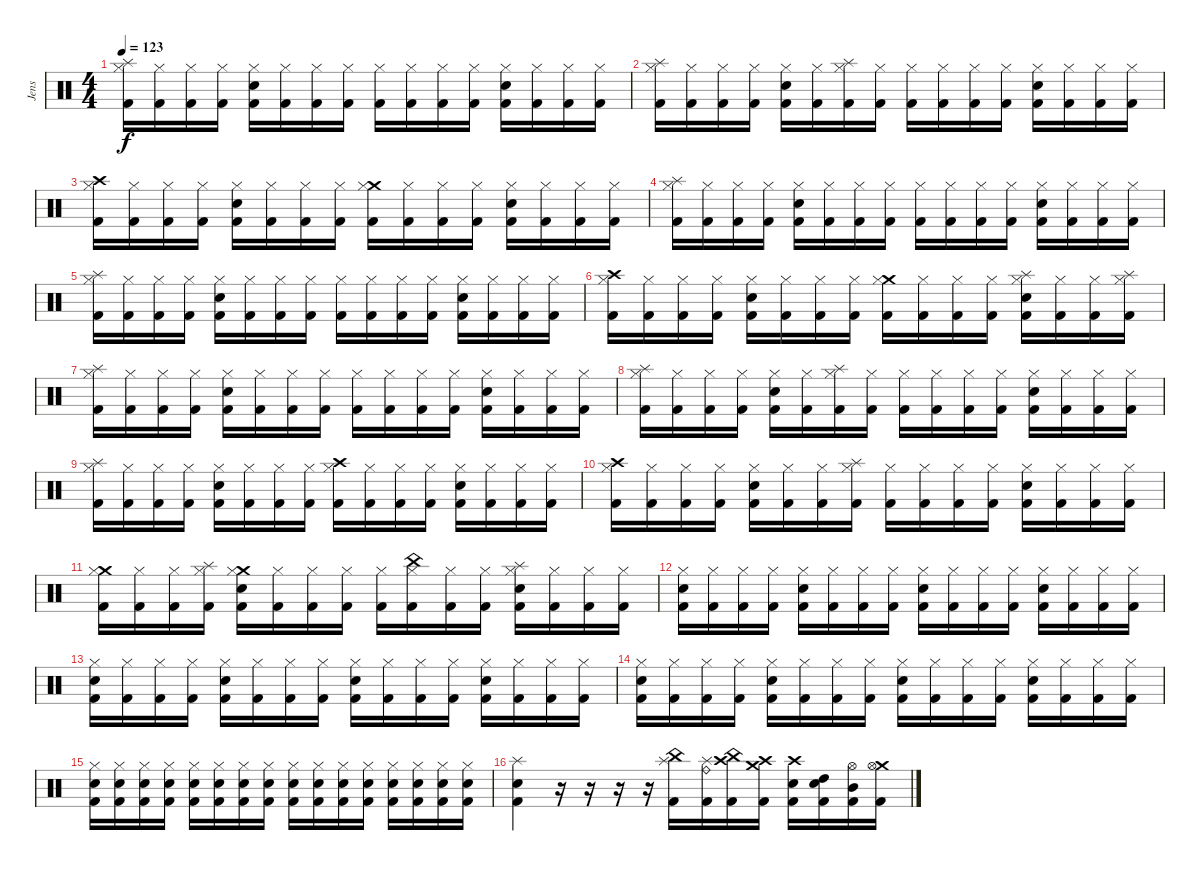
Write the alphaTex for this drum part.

\track ("Jens" "Jens") {instrument percussion}
\staff {score}
\articulation defaults
\ts (4 4)
\tempo 123
\clef neutral
\ks c
("Splash (hit)" "Hi-Hat (closed)" "Kick (hit) 2").16{dy f} ("Hi-Hat (closed)" "Kick (hit) 2").16 ("Hi-Hat (closed)" "Kick (hit) 2").16 ("Hi-Hat (closed)" "Kick (hit) 2").16 ("Hi-Hat (closed)" "Snare (hit) 2" "Kick (hit) 2").16 ("Hi-Hat (closed)" "Kick (hit) 2").16 ("Hi-Hat (closed)" "Kick (hit) 2").16 ("Hi-Hat (closed)" "Kick (hit) 2").16 ("Hi-Hat (closed)" "Kick (hit) 2").16 ("Hi-Hat (closed)" "Kick (hit) 2").16 ("Hi-Hat (closed)" "Kick (hit) 2").16 ("Hi-Hat (closed)" "Kick (hit) 2").16 ("Hi-Hat (closed)" "Snare (hit) 2" "Kick (hit) 2").16 ("Hi-Hat (closed)" "Kick (hit) 2").16 ("Hi-Hat (closed)" "Kick (hit) 2").16 ("Hi-Hat (closed)" "Kick (hit) 2").16 |
("Splash (hit)" "Hi-Hat (closed)" "Kick (hit) 2").16 ("Hi-Hat (closed)" "Kick (hit) 2").16 ("Hi-Hat (closed)" "Kick (hit) 2").16 ("Hi-Hat (closed)" "Kick (hit) 2").16 ("Hi-Hat (closed)" "Snare (hit) 2" "Kick (hit) 2").16 ("Hi-Hat (closed)" "Kick (hit) 2").16 ("Splash (hit)" "Hi-Hat (closed)" "Kick (hit) 2").16 ("Hi-Hat (closed)" "Kick (hit) 2").16 ("Hi-Hat (closed)" "Kick (hit) 2").16 ("Hi-Hat (closed)" "Kick (hit) 2").16 ("Hi-Hat (closed)" "Kick (hit) 2").16 ("Hi-Hat (closed)" "Kick (hit) 2").16 ("Hi-Hat (closed)" "Snare (hit) 2" "Kick (hit) 2").16 ("Hi-Hat (closed)" "Kick (hit) 2").16 ("Hi-Hat (closed)" "Kick (hit) 2").16 ("Hi-Hat (closed)" "Kick (hit) 2").16 |
("Crash high (hit)" "Hi-Hat (closed)" "Kick (hit) 2").16 ("Hi-Hat (closed)" "Kick (hit) 2").16 ("Hi-Hat (closed)" "Kick (hit) 2").16 ("Hi-Hat (closed)" "Kick (hit) 2").16 ("Hi-Hat (closed)" "Snare (hit) 2" "Kick (hit) 2").16 ("Hi-Hat (closed)" "Kick (hit) 2").16 ("Hi-Hat (closed)" "Kick (hit) 2").16 ("Hi-Hat (closed)" "Kick (hit) 2").16 ("Crash medium (hit)" "Hi-Hat (closed)" "Kick (hit) 2").16 ("Hi-Hat (closed)" "Kick (hit) 2").16 ("Hi-Hat (closed)" "Kick (hit) 2").16 ("Hi-Hat (closed)" "Kick (hit) 2").16 ("Hi-Hat (closed)" "Snare (hit) 2" "Kick (hit) 2").16 ("Hi-Hat (closed)" "Kick (hit) 2").16 ("Hi-Hat (closed)" "Kick (hit) 2").16 ("Hi-Hat (closed)" "Kick (hit) 2").16 |
("Splash (hit)" "Hi-Hat (closed)" "Kick (hit) 2").16 ("Hi-Hat (closed)" "Kick (hit) 2").16 ("Hi-Hat (closed)" "Kick (hit) 2").16 ("Hi-Hat (closed)" "Kick (hit) 2").16 ("Hi-Hat (closed)" "Snare (hit) 2" "Kick (hit) 2").16 ("Hi-Hat (closed)" "Kick (hit) 2").16 ("Hi-Hat (closed)" "Kick (hit) 2").16 ("Hi-Hat (closed)" "Kick (hit) 2").16 ("Hi-Hat (closed)" "Kick (hit) 2").16 ("Hi-Hat (closed)" "Kick (hit) 2").16 ("Hi-Hat (closed)" "Kick (hit) 2").16 ("Hi-Hat (closed)" "Kick (hit) 2").16 ("Hi-Hat (closed)" "Snare (hit) 2" "Kick (hit) 2").16 ("Hi-Hat (closed)" "Kick (hit) 2").16 ("Hi-Hat (closed)" "Kick (hit) 2").16 ("Hi-Hat (closed)" "Kick (hit) 2").16 |
("Splash (hit)" "Hi-Hat (closed)" "Kick (hit) 2").16 ("Hi-Hat (closed)" "Kick (hit) 2").16 ("Hi-Hat (closed)" "Kick (hit) 2").16 ("Hi-Hat (closed)" "Kick (hit) 2").16 ("Hi-Hat (closed)" "Snare (hit) 2" "Kick (hit) 2").16 ("Hi-Hat (closed)" "Kick (hit) 2").16 ("Hi-Hat (closed)" "Kick (hit) 2").16 ("Hi-Hat (closed)" "Kick (hit) 2").16 ("Hi-Hat (closed)" "Kick (hit) 2").16 ("Hi-Hat (closed)" "Kick (hit) 2").16 ("Hi-Hat (closed)" "Kick (hit) 2").16 ("Hi-Hat (closed)" "Kick (hit) 2").16 ("Hi-Hat (closed)" "Snare (hit) 2" "Kick (hit) 2").16 ("Hi-Hat (closed)" "Kick (hit) 2").16 ("Hi-Hat (closed)" "Kick (hit) 2").16 ("Hi-Hat (closed)" "Kick (hit) 2").16 |
("Crash high (hit)" "Hi-Hat (closed)" "Kick (hit) 2").16 ("Hi-Hat (closed)" "Kick (hit) 2").16 ("Hi-Hat (closed)" "Kick (hit) 2").16 ("Hi-Hat (closed)" "Kick (hit) 2").16 ("Hi-Hat (closed)" "Snare (hit) 2" "Kick (hit) 2").16 ("Hi-Hat (closed)" "Kick (hit) 2").16 ("Hi-Hat (closed)" "Kick (hit) 2").16 ("Hi-Hat (closed)" "Kick (hit) 2").16 ("Crash medium (hit)" "Hi-Hat (closed)" "Kick (hit) 2").16 ("Hi-Hat (closed)" "Kick (hit) 2").16 ("Hi-Hat (closed)" "Kick (hit) 2").16 ("Hi-Hat (closed)" "Kick (hit) 2").16 ("Splash (hit)" "Hi-Hat (closed)" "Snare (hit) 2" "Kick (hit) 2").16 ("Hi-Hat (closed)" "Kick (hit) 2").16 ("Hi-Hat (closed)" "Kick (hit) 2").16 ("Splash (hit)" "Hi-Hat (closed)" "Kick (hit) 2").16 |
("Splash (hit)" "Hi-Hat (closed)" "Kick (hit) 2").16 ("Hi-Hat (closed)" "Kick (hit) 2").16 ("Hi-Hat (closed)" "Kick (hit) 2").16 ("Hi-Hat (closed)" "Kick (hit) 2").16 ("Hi-Hat (closed)" "Snare (hit) 2" "Kick (hit) 2").16 ("Hi-Hat (closed)" "Kick (hit) 2").16 ("Hi-Hat (closed)" "Kick (hit) 2").16 ("Hi-Hat (closed)" "Kick (hit) 2").16 ("Hi-Hat (closed)" "Kick (hit) 2").16 ("Hi-Hat (closed)" "Kick (hit) 2").16 ("Hi-Hat (closed)" "Kick (hit) 2").16 ("Hi-Hat (closed)" "Kick (hit) 2").16 ("Hi-Hat (closed)" "Snare (hit) 2" "Kick (hit) 2").16 ("Hi-Hat (closed)" "Kick (hit) 2").16 ("Hi-Hat (closed)" "Kick (hit) 2").16 ("Hi-Hat (closed)" "Kick (hit) 2").16 |
("Splash (hit)" "Hi-Hat (closed)" "Kick (hit) 2").16 ("Hi-Hat (closed)" "Kick (hit) 2").16 ("Hi-Hat (closed)" "Kick (hit) 2").16 ("Hi-Hat (closed)" "Kick (hit) 2").16 ("Hi-Hat (closed)" "Snare (hit) 2" "Kick (hit) 2").16 ("Hi-Hat (closed)" "Kick (hit) 2").16 ("Splash (hit)" "Hi-Hat (closed)" "Kick (hit) 2").16 ("Hi-Hat (closed)" "Kick (hit) 2").16 ("Hi-Hat (closed)" "Kick (hit) 2").16 ("Hi-Hat (closed)" "Kick (hit) 2").16 ("Hi-Hat (closed)" "Kick (hit) 2").16 ("Hi-Hat (closed)" "Kick (hit) 2").16 ("Hi-Hat (closed)" "Snare (hit) 2" "Kick (hit) 2").16 ("Hi-Hat (closed)" "Kick (hit) 2").16 ("Hi-Hat (closed)" "Kick (hit) 2").16 ("Hi-Hat (closed)" "Kick (hit) 2").16 |
("Splash (hit)" "Hi-Hat (closed)" "Kick (hit) 2").16 ("Hi-Hat (closed)" "Kick (hit) 2").16 ("Hi-Hat (closed)" "Kick (hit) 2").16 ("Hi-Hat (closed)" "Kick (hit) 2").16 ("Hi-Hat (closed)" "Snare (hit) 2" "Kick (hit) 2").16 ("Hi-Hat (closed)" "Kick (hit) 2").16 ("Hi-Hat (closed)" "Kick (hit) 2").16 ("Hi-Hat (closed)" "Kick (hit) 2").16 ("Crash high (hit)" "Hi-Hat (closed)" "Kick (hit) 2").16 ("Hi-Hat (closed)" "Kick (hit) 2").16 ("Hi-Hat (closed)" "Kick (hit) 2").16 ("Hi-Hat (closed)" "Kick (hit) 2").16 ("Hi-Hat (closed)" "Snare (hit) 2" "Kick (hit) 2").16 ("Hi-Hat (closed)" "Kick (hit) 2").16 ("Hi-Hat (closed)" "Kick (hit) 2").16 ("Hi-Hat (closed)" "Kick (hit) 2").16 |
("Crash high (hit)" "Hi-Hat (closed)" "Kick (hit) 2").16 ("Hi-Hat (closed)" "Kick (hit) 2").16 ("Hi-Hat (closed)" "Kick (hit) 2").16 ("Hi-Hat (closed)" "Kick (hit) 2").16 ("Hi-Hat (closed)" "Snare (hit) 2" "Kick (hit) 2").16 ("Hi-Hat (closed)" "Kick (hit) 2").16 ("Hi-Hat (closed)" "Kick (hit) 2").16 ("Splash (hit)" "Hi-Hat (closed)" "Kick (hit) 2").16 ("Hi-Hat (closed)" "Kick (hit) 2").16 ("Hi-Hat (closed)" "Kick (hit) 2").16 ("Hi-Hat (closed)" "Kick (hit) 2").16 ("Hi-Hat (closed)" "Kick (hit) 2").16 ("Hi-Hat (closed)" "Snare (hit) 2" "Kick (hit) 2").16 ("Hi-Hat (closed)" "Kick (hit) 2").16 ("Hi-Hat (closed)" "Kick (hit) 2").16 ("Hi-Hat (closed)" "Kick (hit) 2").16 |
("Crash medium (hit)" "Hi-Hat (closed)" "Kick (hit) 2").16 ("Hi-Hat (closed)" "Kick (hit) 2").16 ("Hi-Hat (closed)" "Kick (hit) 2").16 ("Splash (hit)" "Hi-Hat (closed)" "Kick (hit) 2").16 ("Crash medium (hit)" "Hi-Hat (closed)" "Snare (hit) 2" "Kick (hit) 2").16 ("Hi-Hat (closed)" "Kick (hit) 2").16 ("Hi-Hat (closed)" "Kick (hit) 2").16 ("Hi-Hat (closed)" "Kick (hit) 2").16 ("Hi-Hat (closed)" "Kick (hit) 2").16 ("China (hit)" "Hi-Hat (closed)" "Kick (hit) 2").16 ("Hi-Hat (closed)" "Kick (hit) 2").16 ("Hi-Hat (closed)" "Kick (hit) 2").16 ("Splash (hit)" "Hi-Hat (closed)" "Snare (hit) 2" "Kick (hit) 2").16 ("Hi-Hat (closed)" "Kick (hit) 2").16 ("Hi-Hat (closed)" "Kick (hit) 2").16 ("Hi-Hat (closed)" "Kick (hit) 2").16 |
("Hi-Hat (closed)" "Snare (hit) 2" "Kick (hit) 2").16 ("Hi-Hat (closed)" "Kick (hit) 2").16 ("Hi-Hat (closed)" "Kick (hit) 2").16 ("Hi-Hat (closed)" "Kick (hit) 2").16 ("Hi-Hat (closed)" "Snare (hit) 2" "Kick (hit) 2").16 ("Hi-Hat (closed)" "Kick (hit) 2").16 ("Hi-Hat (closed)" "Kick (hit) 2").16 ("Hi-Hat (closed)" "Kick (hit) 2").16 ("Hi-Hat (closed)" "Snare (hit) 2" "Kick (hit) 2").16 ("Hi-Hat (closed)" "Kick (hit) 2").16 ("Hi-Hat (closed)" "Kick (hit) 2").16 ("Hi-Hat (closed)" "Kick (hit) 2").16 ("Hi-Hat (closed)" "Snare (hit) 2" "Kick (hit) 2").16 ("Hi-Hat (closed)" "Kick (hit) 2").16 ("Hi-Hat (closed)" "Kick (hit) 2").16 ("Hi-Hat (closed)" "Kick (hit) 2").16 |
("Hi-Hat (closed)" "Snare (hit) 2" "Kick (hit) 2").16 ("Hi-Hat (closed)" "Kick (hit) 2").16 ("Hi-Hat (closed)" "Kick (hit) 2").16 ("Hi-Hat (closed)" "Kick (hit) 2").16 ("Hi-Hat (closed)" "Snare (hit) 2" "Kick (hit) 2").16 ("Hi-Hat (closed)" "Kick (hit) 2").16 ("Hi-Hat (closed)" "Kick (hit) 2").16 ("Hi-Hat (closed)" "Kick (hit) 2").16 ("Hi-Hat (closed)" "Snare (hit) 2" "Kick (hit) 2").16 ("Hi-Hat (closed)" "Kick (hit) 2").16 ("Hi-Hat (closed)" "Kick (hit) 2").16 ("Hi-Hat (closed)" "Kick (hit) 2").16 ("Hi-Hat (closed)" "Snare (hit) 2" "Kick (hit) 2").16 ("Hi-Hat (closed)" "Kick (hit) 2").16 ("Hi-Hat (closed)" "Kick (hit) 2").16 ("Hi-Hat (closed)" "Kick (hit) 2").16 |
("Hi-Hat (closed)" "Snare (hit) 2" "Kick (hit) 2").16 ("Hi-Hat (closed)" "Kick (hit) 2").16 ("Hi-Hat (closed)" "Kick (hit) 2").16 ("Hi-Hat (closed)" "Kick (hit) 2").16 ("Hi-Hat (closed)" "Snare (hit) 2" "Kick (hit) 2").16 ("Hi-Hat (closed)" "Kick (hit) 2").16 ("Hi-Hat (closed)" "Kick (hit) 2").16 ("Hi-Hat (closed)" "Kick (hit) 2").16 ("Hi-Hat (closed)" "Snare (hit) 2" "Kick (hit) 2").16 ("Hi-Hat (closed)" "Kick (hit) 2").16 ("Hi-Hat (closed)" "Kick (hit) 2").16 ("Hi-Hat (closed)" "Kick (hit) 2").16 ("Hi-Hat (closed)" "Snare (hit) 2" "Kick (hit) 2").16 ("Hi-Hat (closed)" "Kick (hit) 2").16 ("Hi-Hat (closed)" "Kick (hit) 2").16 ("Hi-Hat (closed)" "Kick (hit) 2").16 |
("Hi-Hat (closed)" "Snare (hit) 2" "Kick (hit) 2").16 ("Hi-Hat (closed)" "Snare (hit) 2" "Kick (hit) 2").16 ("Hi-Hat (closed)" "Snare (hit) 2" "Kick (hit) 2").16 ("Hi-Hat (closed)" "Snare (hit) 2" "Kick (hit) 2").16 ("Hi-Hat (closed)" "Snare (hit) 2" "Kick (hit) 2").16 ("Hi-Hat (closed)" "Snare (hit) 2" "Kick (hit) 2").16 ("Hi-Hat (closed)" "Snare (hit) 2" "Kick (hit) 2").16 ("Hi-Hat (closed)" "Snare (hit) 2" "Kick (hit) 2").16 ("Hi-Hat (closed)" "Snare (hit) 2" "Kick (hit) 2").16 ("Hi-Hat (closed)" "Snare (hit) 2" "Kick (hit) 2").16 ("Hi-Hat (closed)" "Snare (hit) 2" "Kick (hit) 2").16 ("Hi-Hat (closed)" "Snare (hit) 2" "Kick (hit) 2").16 ("Hi-Hat (closed)" "Snare (hit) 2" "Kick (hit) 2").16 ("Hi-Hat (closed)" "Snare (hit) 2" "Kick (hit) 2").16 ("Hi-Hat (closed)" "Snare (hit) 2" "Kick (hit) 2").16 ("Hi-Hat (closed)" "Snare (hit) 2" "Kick (hit) 2").16 |
("Splash (hit)" "Snare (hit) 2" "Kick (hit) 2").4 r.16 r.16 r.16 r.16 ("China (hit)" "Splash (hit)" "Kick (hit) 2").16 ("Splash (hit)" "Ride (bell)" "Kick (hit) 2").16 ("China (hit)" "Crash high (hit)" "Kick (hit) 2").16 ("Crash high (hit)" "Crash medium (hit)" "Kick (hit) 2").16 ("Crash high (hit)" "Snare (hit) 2" "Kick (hit) 2").16 ("High Tom (hit)" "Snare (hit) 2" "Kick (hit) 2").16 ("Hi-Hat (open)" "Mid Tom (hit)" "Kick (hit) 2").16 ("Crash medium (hit)" "Hi-Hat (open)" "Kick (hit) 2").16
